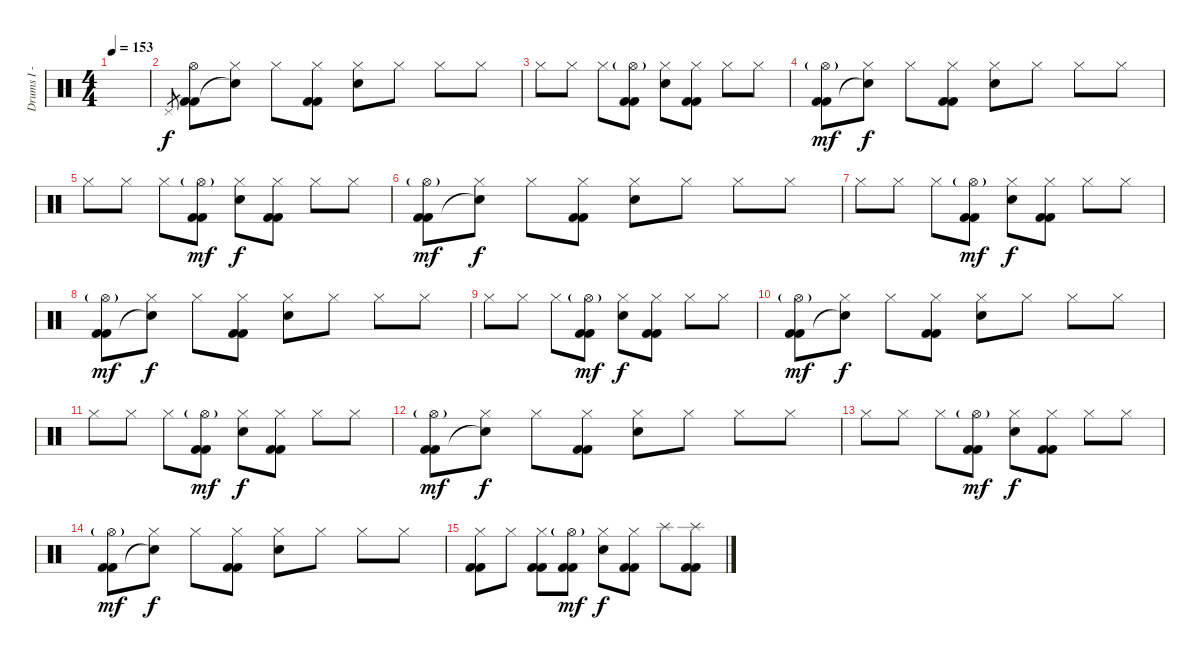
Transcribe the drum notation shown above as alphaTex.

\track ("Drums I - Adam" "Drums I - ") {instrument percussion}
\staff {score}
\articulation defaults
\ts (4 4)
\tempo 153
\clef neutral
\ks c
|
"Pedal Hi-Hat (hit)"{sl}.8{gr} ("Hi-Hat (open)" "Kick (hit) 2" "Kick (hit) 2").8 ("Hi-Hat (closed)" "Snare (hit)"{t}).8 "Hi-Hat (closed)".8 ("Hi-Hat (closed)" "Kick (hit) 2" "Kick (hit) 2").8 ("Hi-Hat (closed)" "Electric Snare (hit)").8 "Hi-Hat (closed)".8 "Hi-Hat (closed)".8 "Hi-Hat (closed)".8 |
"Hi-Hat (closed)".8 "Hi-Hat (closed)".8 "Hi-Hat (closed)".8 ("Hi-Hat (open)"{g} "Kick (hit) 2" "Kick (hit) 2").8 ("Hi-Hat (closed)" "Electric Snare (hit)").8 ("Hi-Hat (closed)" "Kick (hit) 2" "Kick (hit) 2").8 "Hi-Hat (closed)".8 "Hi-Hat (closed)".8 |
("Hi-Hat (open)"{g} "Kick (hit) 2" "Kick (hit) 2").8{dy mf} ("Hi-Hat (closed)" "Snare (hit)"{t}).8{dy f} "Hi-Hat (closed)".8 ("Hi-Hat (closed)" "Kick (hit) 2" "Kick (hit) 2").8 ("Hi-Hat (closed)" "Electric Snare (hit)").8 "Hi-Hat (closed)".8 "Hi-Hat (closed)".8 "Hi-Hat (closed)".8 |
"Hi-Hat (closed)".8 "Hi-Hat (closed)".8 "Hi-Hat (closed)".8 ("Hi-Hat (open)"{g} "Kick (hit) 2" "Kick (hit) 2").8{dy mf} ("Hi-Hat (closed)" "Electric Snare (hit)").8{dy f} ("Hi-Hat (closed)" "Kick (hit) 2" "Kick (hit) 2").8 "Hi-Hat (closed)".8 "Hi-Hat (closed)".8 |
("Hi-Hat (open)"{g} "Kick (hit) 2" "Kick (hit) 2").8{dy mf} ("Hi-Hat (closed)" "Snare (hit)"{t}).8{dy f} "Hi-Hat (closed)".8 ("Hi-Hat (closed)" "Kick (hit) 2" "Kick (hit) 2").8 ("Hi-Hat (closed)" "Electric Snare (hit)").8 "Hi-Hat (closed)".8 "Hi-Hat (closed)".8 "Hi-Hat (closed)".8 |
"Hi-Hat (closed)".8 "Hi-Hat (closed)".8 "Hi-Hat (closed)".8 ("Hi-Hat (open)"{g} "Kick (hit) 2" "Kick (hit) 2").8{dy mf} ("Hi-Hat (closed)" "Electric Snare (hit)").8{dy f} ("Hi-Hat (closed)" "Kick (hit) 2" "Kick (hit) 2").8 "Hi-Hat (closed)".8 "Hi-Hat (closed)".8 |
("Hi-Hat (open)"{g} "Kick (hit) 2" "Kick (hit) 2").8{dy mf} ("Hi-Hat (closed)" "Snare (hit)"{t}).8{dy f} "Hi-Hat (closed)".8 ("Hi-Hat (closed)" "Kick (hit) 2" "Kick (hit) 2").8 ("Hi-Hat (closed)" "Electric Snare (hit)").8 "Hi-Hat (closed)".8 "Hi-Hat (closed)".8 "Hi-Hat (closed)".8 |
"Hi-Hat (closed)".8 "Hi-Hat (closed)".8 "Hi-Hat (closed)".8 ("Hi-Hat (open)"{g} "Kick (hit) 2" "Kick (hit) 2").8{dy mf} ("Hi-Hat (closed)" "Electric Snare (hit)").8{dy f} ("Hi-Hat (closed)" "Kick (hit) 2" "Kick (hit) 2").8 "Hi-Hat (closed)".8 "Hi-Hat (closed)".8 |
("Hi-Hat (open)"{g} "Kick (hit) 2" "Kick (hit) 2").8{dy mf} ("Hi-Hat (closed)" "Snare (hit)"{t}).8{dy f} "Hi-Hat (closed)".8 ("Hi-Hat (closed)" "Kick (hit) 2" "Kick (hit) 2").8 ("Hi-Hat (closed)" "Electric Snare (hit)").8 "Hi-Hat (closed)".8 "Hi-Hat (closed)".8 "Hi-Hat (closed)".8 |
"Hi-Hat (closed)".8 "Hi-Hat (closed)".8 "Hi-Hat (closed)".8 ("Hi-Hat (open)"{g} "Kick (hit) 2" "Kick (hit) 2").8{dy mf} ("Hi-Hat (closed)" "Electric Snare (hit)").8{dy f} ("Hi-Hat (closed)" "Kick (hit) 2" "Kick (hit) 2").8 "Hi-Hat (closed)".8 "Hi-Hat (closed)".8 |
("Hi-Hat (open)"{g} "Kick (hit) 2" "Kick (hit) 2").8{dy mf} ("Hi-Hat (closed)" "Snare (hit)"{t}).8{dy f} "Hi-Hat (closed)".8 ("Hi-Hat (closed)" "Kick (hit) 2" "Kick (hit) 2").8 ("Hi-Hat (closed)" "Electric Snare (hit)").8 "Hi-Hat (closed)".8 "Hi-Hat (closed)".8 "Hi-Hat (closed)".8 |
"Hi-Hat (closed)".8 "Hi-Hat (closed)".8 "Hi-Hat (closed)".8 ("Hi-Hat (open)"{g} "Kick (hit) 2" "Kick (hit) 2").8{dy mf} ("Hi-Hat (closed)" "Electric Snare (hit)").8{dy f} ("Hi-Hat (closed)" "Kick (hit) 2" "Kick (hit) 2").8 "Hi-Hat (closed)".8 "Hi-Hat (closed)".8 |
("Hi-Hat (open)"{g} "Kick (hit) 2" "Kick (hit) 2").8{dy mf} ("Hi-Hat (closed)" "Snare (hit)"{t}).8{dy f} "Hi-Hat (closed)".8 ("Hi-Hat (closed)" "Kick (hit) 2" "Kick (hit) 2").8 ("Hi-Hat (closed)" "Electric Snare (hit)").8 "Hi-Hat (closed)".8 "Hi-Hat (closed)".8 "Hi-Hat (closed)".8 |
("Hi-Hat (closed)" "Kick (hit) 2" "Kick (hit) 2").8 "Hi-Hat (closed)".8 ("Hi-Hat (closed)" "Kick (hit) 2" "Kick (hit) 2").8 ("Hi-Hat (open)"{g} "Kick (hit) 2" "Kick (hit) 2").8{dy mf} ("Hi-Hat (closed)" "Electric Snare (hit)").8{dy f} ("Hi-Hat (closed)" "Kick (hit) 2" "Kick (hit) 2").8 "Splash (hit)".8 ("Splash (hit)" "Kick (hit) 2" "Kick (hit) 2").8
